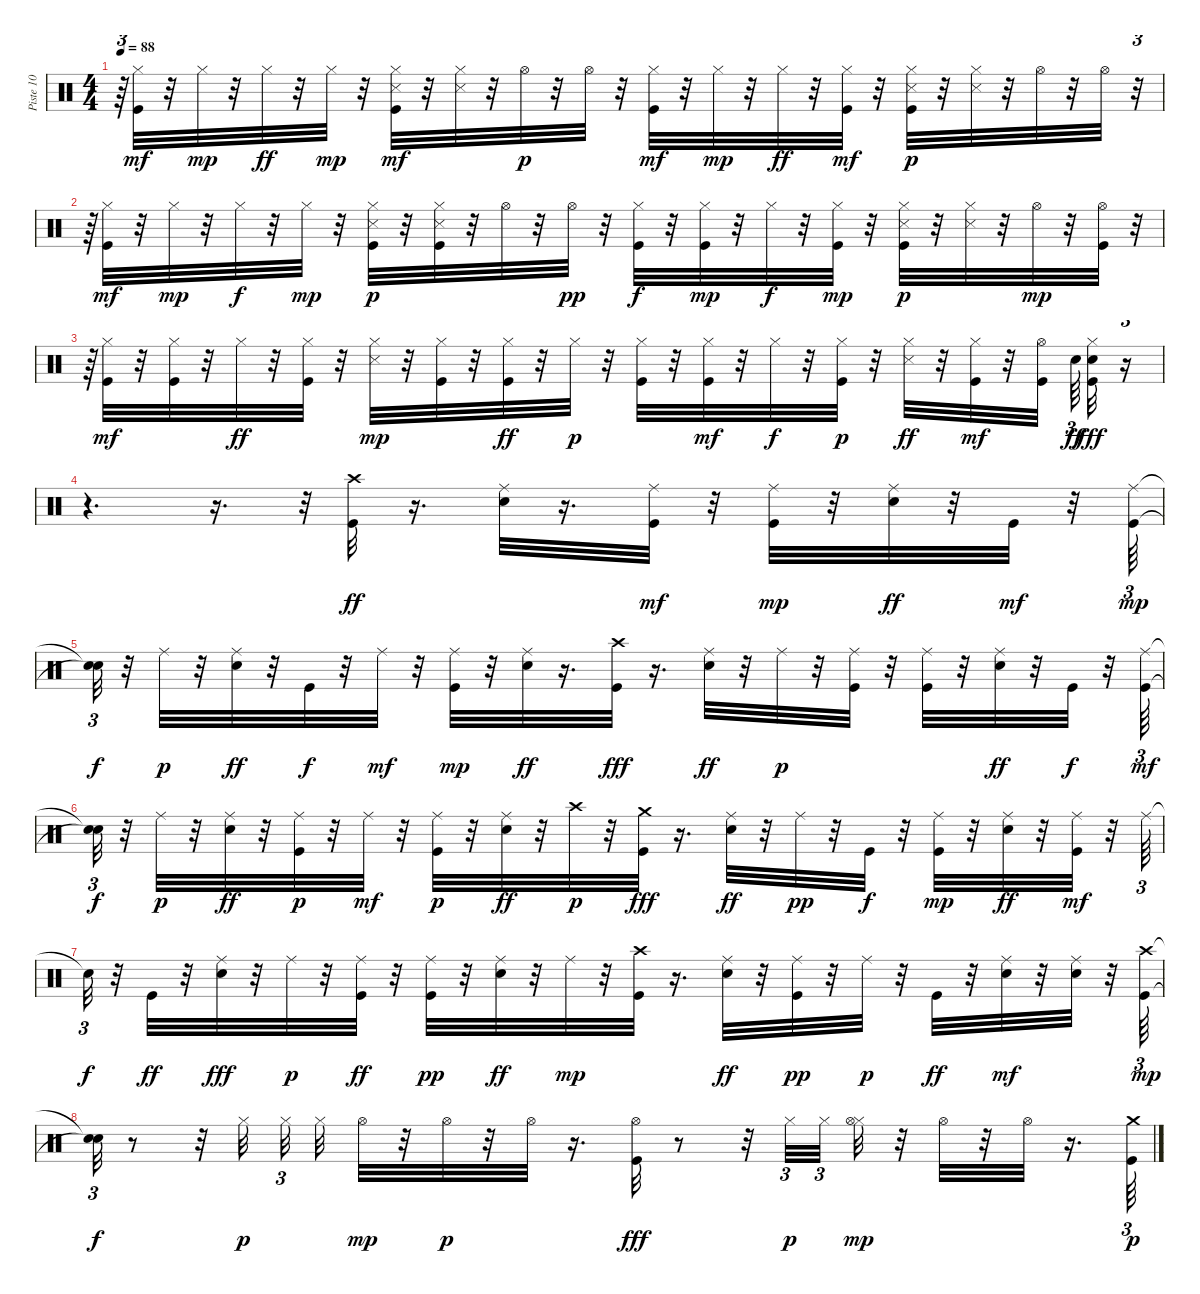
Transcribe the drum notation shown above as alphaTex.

\track ("Piste 10" "Piste 10") {instrument percussion}
\staff {score}
\articulation defaults
\ts (4 4)
\tempo 88
\clef neutral
\ks c
r.64{tu (3 2) dy p} ("Hi-Hat (closed)" "Kick (hit)").32{dy mf} r.32 "Hi-Hat (closed)".32{dy mp} r.32 "Hi-Hat (closed)".32{dy ff} r.32 "Hi-Hat (closed)".32{dy mp} r.32 ("Snare (side stick) 3" "Hi-Hat (closed)" "Kick (hit)").32{dy mf} r.32 ("Snare (side stick) 3" "Hi-Hat (closed)").32 r.32 "Hi-Hat (open)".32{dy p} r.32 "Hi-Hat (open)".32 r.32 ("Hi-Hat (closed)" "Kick (hit)").32{dy mf} r.32 "Hi-Hat (closed)".32{dy mp} r.32 "Hi-Hat (closed)".32{dy ff} r.32 ("Hi-Hat (closed)" "Kick (hit)").32{dy mf} r.32 ("Hi-Hat (closed)" "Snare (side stick) 3" "Kick (hit)").32{dy p} r.32 ("Hi-Hat (closed)" "Snare (side stick) 3").32 r.32 "Hi-Hat (open)".32 r.32 "Hi-Hat (open)".32 r.32{tu (3 2)} |
r.64{tu (3 2)} ("Hi-Hat (closed)" "Kick (hit)").32{dy mf} r.32 "Hi-Hat (closed)".32{dy mp} r.32 "Hi-Hat (closed)".32{dy f} r.32 "Hi-Hat (closed)".32{dy mp} r.32 ("Hi-Hat (closed)" "Kick (hit)" "Snare (side stick) 3").32{dy p} r.32 ("Snare (side stick) 3" "Hi-Hat (closed)" "Kick (hit)").32 r.32 "Hi-Hat (open)".32 r.32 "Hi-Hat (open)".32{dy pp} r.32 ("Hi-Hat (closed)" "Kick (hit)").32{dy f} r.32 ("Hi-Hat (closed)" "Kick (hit)").32{dy mp} r.32 "Hi-Hat (closed)".32{dy f} r.32 ("Hi-Hat (closed)" "Kick (hit)").32{dy mp} r.32 ("Kick (hit)" "Hi-Hat (closed)" "Snare (side stick) 3").32{dy p} r.32 ("Hi-Hat (closed)" "Snare (side stick) 3").32 r.32 "Hi-Hat (open)".32{dy mp} r.32 ("Hi-Hat (open)" "Kick (hit)").32 r.32{tu (3 2)} |
r.64{tu (3 2)} ("Kick (hit)" "Hi-Hat (closed)").32{dy mf} r.32 ("Kick (hit)" "Hi-Hat (closed)").32 r.32 "Hi-Hat (closed)".32{dy ff} r.32 ("Hi-Hat (closed)" "Kick (hit)").32 r.32 ("Hi-Hat (closed)" "Snare (side stick) 3").32{dy mp} r.32 ("Hi-Hat (closed)" "Kick (hit)").32 r.32 ("Hi-Hat (closed)" "Kick (hit)").32{dy ff} r.32 "Hi-Hat (closed)".32{dy p} r.32 ("Kick (hit)" "Hi-Hat (closed)").32 r.32 ("Hi-Hat (closed)" "Kick (hit)").32{dy mf} r.32 "Hi-Hat (closed)".32{dy f} r.32 ("Hi-Hat (closed)" "Kick (hit)").32{dy p} r.32 ("Hi-Hat (closed)" "Snare (side stick) 3").32{dy ff} r.32 ("Kick (hit)" "Hi-Hat (closed)").32{dy mf} r.32 ("Kick (hit)" "Hi-Hat (open)").32 "Electric Snare (hit)".64{tu (3 2) dy ff} ("Electric Snare (hit)" "Hi-Hat (closed)" "Kick (hit)").32{dy fff} r.16{tu (3 2)} |
r.4{d} r.16{d} r.32{tu (3 2)} ("Crash high (hit)" "Kick (hit)").32{dy ff} r.16{d} ("Ride (middle)" "Electric Snare (hit)").32 r.16{d} ("Ride (middle)" "Kick (hit)").32{dy mf} r.32 ("Ride (middle)" "Kick (hit)").32{dy mp} r.32 ("Ride (middle)" "Electric Snare (hit)").32{dy ff} r.32 "Kick (hit)".32{dy mf} r.32 ("Ride (middle)" "Kick (hit)").64{tu (3 2) dy mp} |
("Snare (hit)"{t} "Snare (hit)"{t}).32{tu (3 2) dy f} r.32 "Ride (middle)".32{dy p} r.32 ("Ride (middle)" "Electric Snare (hit)").32{dy ff} r.32 "Kick (hit)".32{dy f} r.32 "Ride (middle)".32{dy mf} r.32 ("Ride (middle)" "Kick (hit)").32{dy mp} r.32 ("Ride (middle)" "Electric Snare (hit)").32{dy ff} r.16{d} ("Crash high (hit)" "Kick (hit)").32{dy fff} r.16{d} ("Ride (middle)" "Electric Snare (hit)").32{dy ff} r.32 "Ride (middle)".32{dy p} r.32 ("Ride (middle)" "Kick (hit)").32 r.32 ("Ride (middle)" "Kick (hit)").32 r.32 ("Ride (middle)" "Electric Snare (hit)").32{dy ff} r.32 "Kick (hit)".32{dy f} r.32 ("Ride (middle)" "Kick (hit)").64{tu (3 2) dy mf} |
("Snare (hit)"{t} "Snare (hit)"{t}).32{tu (3 2) dy f} r.32 "Ride (middle)".32{dy p} r.32 ("Ride (middle)" "Electric Snare (hit)").32{dy ff} r.32 ("Ride (middle)" "Kick (hit)").32{dy p} r.32 "Ride (middle)".32{dy mf} r.32 ("Ride (middle)" "Kick (hit)").32{dy p} r.32 ("Ride (middle)" "Electric Snare (hit)").32{dy ff} r.32 "Crash high (hit)".32{dy p} r.32 ("Crash medium (hit)" "Kick (hit)").32{dy fff} r.16{d} ("Ride (middle)" "Electric Snare (hit)").32{dy ff} r.32 "Ride (middle)".32{dy pp} r.32 "Kick (hit)".32{dy f} r.32 ("Ride (middle)" "Kick (hit)").32{dy mp} r.32 ("Ride (middle)" "Electric Snare (hit)").32{dy ff} r.32 ("Ride (middle)" "Kick (hit)").32{dy mf} r.32 "Ride (middle)".64{tu (3 2)} |
"Snare (hit)"{t}.32{tu (3 2) dy f} r.32 "Kick (hit)".32{dy ff} r.32 ("Ride (middle)" "Electric Snare (hit)").32{dy fff} r.32 "Ride (middle)".32{dy p} r.32 ("Ride (middle)" "Kick (hit)").32{dy ff} r.32 ("Ride (middle)" "Kick (hit)").32{dy pp} r.32 ("Ride (middle)" "Electric Snare (hit)").32{dy ff} r.32 "Ride (middle)".32{dy mp} r.32 ("Kick (hit)" "Crash high (hit)").32 r.16{d} ("Ride (middle)" "Electric Snare (hit)").32{dy ff} r.32 ("Ride (middle)" "Kick (hit)").32{dy pp} r.32 "Ride (middle)".32{dy p} r.32 "Kick (hit)".32{dy ff} r.32 ("Ride (middle)" "Electric Snare (hit)").32{dy mf} r.32 ("Ride (middle)" "Electric Snare (hit)").32 r.32 ("Kick (hit)" "Crash high (hit)").64{tu (3 2) dy mp} |
("Snare (hit)"{t} "Snare (hit)"{t}).32{tu (3 2) dy f} r.8 r.32 "Hi-Hat (closed)".32{dy p} "Hi-Hat (closed)".32{tu (3 2)} "Hi-Hat (closed)".32 "Hi-Hat (open)".32{dy mp} r.32 "Hi-Hat (open)".32{dy p} r.32 "Hi-Hat (open)".32 r.16{d} ("Hi-Hat (open)" "Kick (hit)").32{dy fff} r.8 r.32 "Hi-Hat (closed)".32{tu (3 2) dy p} "Hi-Hat (closed)".32{tu (3 2)} ("Hi-Hat (closed)" "Hi-Hat (open)").32{dy mp} r.32 "Hi-Hat (open)".32 r.32 "Hi-Hat (open)".32 r.16{d} ("Kick (hit)" "Crash medium (hit)").64{tu (3 2) dy p}
